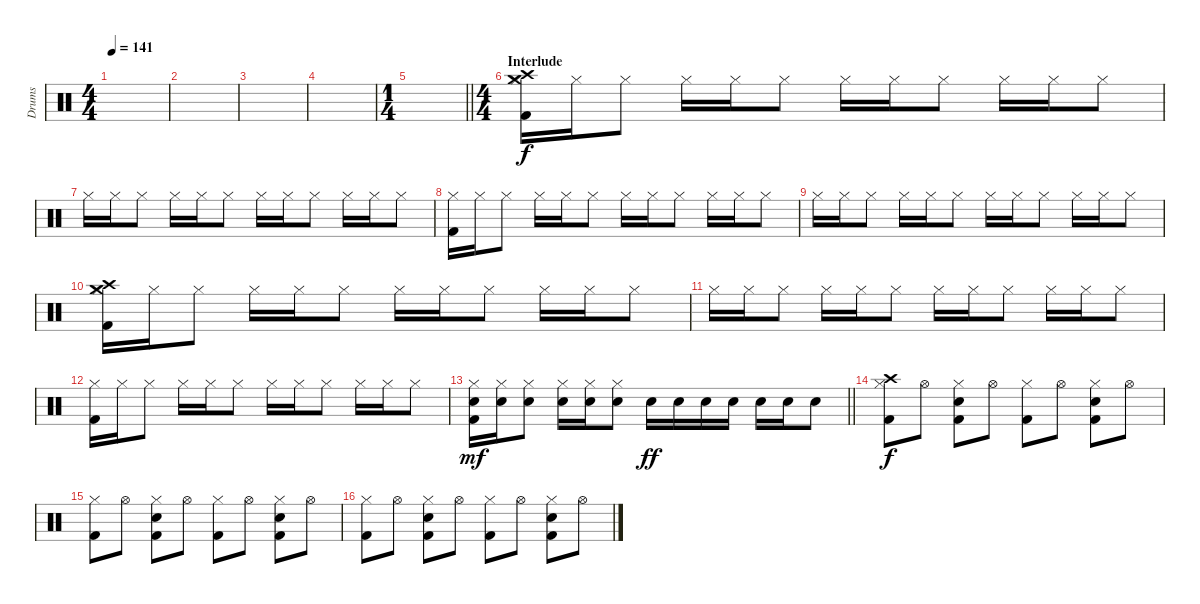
\track ("Drums" "Drums") {instrument percussion}
\staff {score}
\articulation defaults
\ts (4 4)
\tempo 141
\clef neutral
\ks c
|
|
|
|
\ts (1 4)
\barLineRight lightlight
|
\ts (4 4)
\section ("" "Interlude")
("Hi-Hat (closed)" "Crash high (hit)" "Crash medium (hit)" "Kick (hit) 2").16 "Hi-Hat (closed)".16 "Hi-Hat (closed)".8 "Hi-Hat (closed)".16 "Hi-Hat (closed)".16 "Hi-Hat (closed)".8 "Hi-Hat (closed)".16 "Hi-Hat (closed)".16 "Hi-Hat (closed)".8 "Hi-Hat (closed)".16 "Hi-Hat (closed)".16 "Hi-Hat (closed)".8 |
"Hi-Hat (closed)".16 "Hi-Hat (closed)".16 "Hi-Hat (closed)".8 "Hi-Hat (closed)".16 "Hi-Hat (closed)".16 "Hi-Hat (closed)".8 "Hi-Hat (closed)".16 "Hi-Hat (closed)".16 "Hi-Hat (closed)".8 "Hi-Hat (closed)".16 "Hi-Hat (closed)".16 "Hi-Hat (closed)".8 |
("Hi-Hat (closed)" "Kick (hit) 2").16 "Hi-Hat (closed)".16 "Hi-Hat (closed)".8 "Hi-Hat (closed)".16 "Hi-Hat (closed)".16 "Hi-Hat (closed)".8 "Hi-Hat (closed)".16 "Hi-Hat (closed)".16 "Hi-Hat (closed)".8 "Hi-Hat (closed)".16 "Hi-Hat (closed)".16 "Hi-Hat (closed)".8 |
"Hi-Hat (closed)".16 "Hi-Hat (closed)".16 "Hi-Hat (closed)".8 "Hi-Hat (closed)".16 "Hi-Hat (closed)".16 "Hi-Hat (closed)".8 "Hi-Hat (closed)".16 "Hi-Hat (closed)".16 "Hi-Hat (closed)".8 "Hi-Hat (closed)".16 "Hi-Hat (closed)".16 "Hi-Hat (closed)".8 |
("Hi-Hat (closed)" "Crash high (hit)" "Crash medium (hit)" "Kick (hit) 2").16 "Hi-Hat (closed)".16 "Hi-Hat (closed)".8 "Hi-Hat (closed)".16 "Hi-Hat (closed)".16 "Hi-Hat (closed)".8 "Hi-Hat (closed)".16 "Hi-Hat (closed)".16 "Hi-Hat (closed)".8 "Hi-Hat (closed)".16 "Hi-Hat (closed)".16 "Hi-Hat (closed)".8 |
"Hi-Hat (closed)".16 "Hi-Hat (closed)".16 "Hi-Hat (closed)".8 "Hi-Hat (closed)".16 "Hi-Hat (closed)".16 "Hi-Hat (closed)".8 "Hi-Hat (closed)".16 "Hi-Hat (closed)".16 "Hi-Hat (closed)".8 "Hi-Hat (closed)".16 "Hi-Hat (closed)".16 "Hi-Hat (closed)".8 |
("Hi-Hat (closed)" "Kick (hit) 2").16 "Hi-Hat (closed)".16 "Hi-Hat (closed)".8 "Hi-Hat (closed)".16 "Hi-Hat (closed)".16 "Hi-Hat (closed)".8 "Hi-Hat (closed)".16 "Hi-Hat (closed)".16 "Hi-Hat (closed)".8 "Hi-Hat (closed)".16 "Hi-Hat (closed)".16 "Hi-Hat (closed)".8 |
\barLineRight lightlight
("Hi-Hat (closed)" "Snare (hit) 2" "Kick (hit) 2").16{dy mf} ("Hi-Hat (closed)" "Snare (hit) 2").16 ("Hi-Hat (closed)" "Snare (hit) 2").8 ("Hi-Hat (closed)" "Snare (hit) 2").16 ("Hi-Hat (closed)" "Snare (hit) 2").16 ("Hi-Hat (closed)" "Snare (hit) 2").8 "Snare (hit) 2".16{dy ff} "Snare (hit) 2".16 "Snare (hit) 2".16 "Snare (hit) 2".16 "Snare (hit) 2".16 "Snare (hit) 2".16 "Snare (hit) 2".8 |
("Hi-Hat (closed)" "Crash high (hit)" "Kick (hit) 2").8{dy f} "Hi-Hat (open)".8 ("Hi-Hat (closed)" "Snare (hit) 2" "Kick (hit) 2").8 "Hi-Hat (open)".8 ("Hi-Hat (closed)" "Kick (hit) 2").8 "Hi-Hat (open)".8 ("Hi-Hat (closed)" "Snare (hit) 2" "Kick (hit) 2").8 "Hi-Hat (open)".8 |
("Hi-Hat (closed)" "Kick (hit) 2").8 "Hi-Hat (open)".8 ("Hi-Hat (closed)" "Snare (hit) 2" "Kick (hit) 2").8 "Hi-Hat (open)".8 ("Hi-Hat (closed)" "Kick (hit) 2").8 "Hi-Hat (open)".8 ("Hi-Hat (closed)" "Snare (hit) 2" "Kick (hit) 2").8 "Hi-Hat (open)".8 |
("Hi-Hat (closed)" "Kick (hit) 2").8 "Hi-Hat (open)".8 ("Hi-Hat (closed)" "Snare (hit) 2" "Kick (hit) 2").8 "Hi-Hat (open)".8 ("Hi-Hat (closed)" "Kick (hit) 2").8 "Hi-Hat (open)".8 ("Hi-Hat (closed)" "Snare (hit) 2" "Kick (hit) 2").8 "Hi-Hat (open)".8
